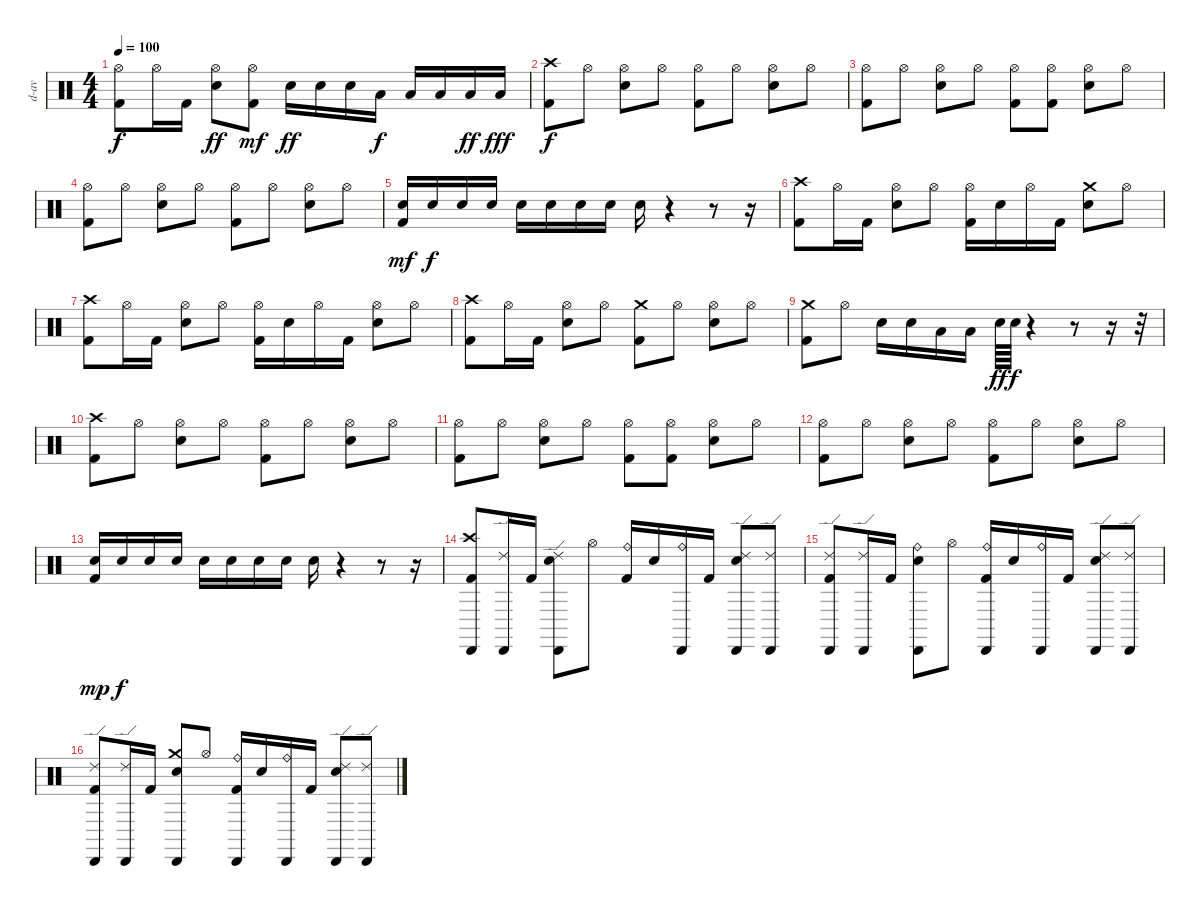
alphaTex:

\track ("d-av" "d-av") {instrument percussion}
\staff {score}
\articulation defaults
\ts (4 4)
\tempo 100
\clef neutral
\ks c
("Hi-Hat (open)" "Kick (hit) 2").8{dy f} "Hi-Hat (open)".16 "Kick (hit) 2".16 ("Hi-Hat (open)" "Electric Snare (hit)").8{dy ff} ("Hi-Hat (open)" "Kick (hit) 2").8{dy mf} "Electric Snare (hit)".16{dy ff} "Electric Snare (hit)".16 "Electric Snare (hit)".16 "Low Tom (hit)".16{dy f} "Low Tom (hit)".16 "Low Floor Tom (hit)".16 "Low Floor Tom (hit)".16{dy ff} "Low Floor Tom (hit)".16{dy fff} |
("Crash high (hit)" "Kick (hit) 2").8{dy f} "Hi-Hat (open)".8 ("Hi-Hat (open)" "Electric Snare (hit)").8 "Hi-Hat (open)".8 ("Hi-Hat (open)" "Kick (hit) 2").8 "Hi-Hat (open)".8 ("Hi-Hat (open)" "Electric Snare (hit)").8 "Hi-Hat (open)".8 |
("Hi-Hat (open)" "Kick (hit) 2").8 "Hi-Hat (open)".8 ("Hi-Hat (open)" "Electric Snare (hit)").8 "Hi-Hat (open)".8 ("Hi-Hat (open)" "Kick (hit) 2").8 ("Hi-Hat (open)" "Kick (hit) 2").8 ("Hi-Hat (open)" "Electric Snare (hit)").8 "Hi-Hat (open)".8 |
("Hi-Hat (open)" "Kick (hit) 2").8 "Hi-Hat (open)".8 ("Hi-Hat (open)" "Electric Snare (hit)").8 "Hi-Hat (open)".8 ("Hi-Hat (open)" "Kick (hit) 2").8 "Hi-Hat (open)".8 ("Hi-Hat (open)" "Electric Snare (hit)").8 "Hi-Hat (open)".8 |
("Electric Snare (hit)" "Kick (hit) 2").16{dy mf} "Electric Snare (hit)".16{dy f} "Electric Snare (hit)".16 "Electric Snare (hit)".16 "Electric Snare (hit)".16 "Electric Snare (hit)".16 "Electric Snare (hit)".16 "Electric Snare (hit)".16 "Electric Snare (hit)".16 r.4 r.8 r.16 |
("Crash high (hit)" "Kick (hit) 2").8 "Hi-Hat (open)".16 "Kick (hit) 2".16 ("Hi-Hat (open)" "Electric Snare (hit)").8 "Hi-Hat (open)".8 ("Hi-Hat (open)" "Kick (hit) 2").16 "Electric Snare (hit)".16 "Hi-Hat (open)".16 "Kick (hit) 2".16 ("Crash medium (hit)" "Electric Snare (hit)").8 "Hi-Hat (open)".8 |
("Crash high (hit)" "Kick (hit) 2").8 "Hi-Hat (open)".16 "Kick (hit) 2".16 ("Hi-Hat (open)" "Electric Snare (hit)").8 "Hi-Hat (open)".8 ("Hi-Hat (open)" "Kick (hit) 2").16 "Electric Snare (hit)".16 "Hi-Hat (open)".16 "Kick (hit) 2".16 ("Hi-Hat (open)" "Electric Snare (hit)").8 "Hi-Hat (open)".8 |
("Crash high (hit)" "Kick (hit) 2").8 "Hi-Hat (open)".16 "Kick (hit) 2".16 ("Hi-Hat (open)" "Electric Snare (hit)").8 "Hi-Hat (open)".8 ("Crash medium (hit)" "Kick (hit) 2").8 "Hi-Hat (open)".8 ("Hi-Hat (open)" "Electric Snare (hit)").8 "Hi-Hat (open)".8 |
("Crash medium (hit)" "Kick (hit) 2").8 "Hi-Hat (open)".8 "Electric Snare (hit)".16 "Electric Snare (hit)".16 "Low Tom (hit)".16 "Low Tom (hit)".16 "Electric Snare (hit)".64{dy ff} "Electric Snare (hit)".64{dy f} r.4 r.8 r.16 r.32 |
("Crash high (hit)" "Kick (hit) 2").8 "Hi-Hat (open)".8 ("Hi-Hat (open)" "Electric Snare (hit)").8 "Hi-Hat (open)".8 ("Hi-Hat (open)" "Kick (hit) 2").8 "Hi-Hat (open)".8 ("Hi-Hat (open)" "Electric Snare (hit)").8 "Hi-Hat (open)".8 |
("Hi-Hat (open)" "Kick (hit) 2").8 "Hi-Hat (open)".8 ("Hi-Hat (open)" "Electric Snare (hit)").8 "Hi-Hat (open)".8 ("Hi-Hat (open)" "Kick (hit) 2").8 ("Hi-Hat (open)" "Kick (hit) 2").8 ("Hi-Hat (open)" "Electric Snare (hit)").8 "Hi-Hat (open)".8 |
("Hi-Hat (open)" "Kick (hit) 2").8 "Hi-Hat (open)".8 ("Hi-Hat (open)" "Electric Snare (hit)").8 "Hi-Hat (open)".8 ("Hi-Hat (open)" "Kick (hit) 2").8 "Hi-Hat (open)".8 ("Hi-Hat (open)" "Electric Snare (hit)").8 "Hi-Hat (open)".8 |
("Electric Snare (hit)" "Kick (hit) 2").16{dy mp} "Electric Snare (hit)".16{dy f} "Electric Snare (hit)".16 "Electric Snare (hit)".16 "Electric Snare (hit)".16 "Electric Snare (hit)".16 "Electric Snare (hit)".16 "Electric Snare (hit)".16 "Electric Snare (hit)".16 r.4 r.8 r.16 |
("Crash high (hit)" "Kick (hit) 2" "Cabasa (hit)").8 ("Ride (edge) 2" "Cabasa (hit)").16 "Kick (hit) 2".16 ("Ride (edge) 2" "Electric Snare (hit)" "Cabasa (hit)").8 "Hi-Hat (open)".8 ("Ride (bell)" "Kick (hit) 2").16 "Electric Snare (hit)".16 ("Ride (bell)" "Cabasa (hit)").16 "Kick (hit) 2".16 ("Ride (edge) 2" "Electric Snare (hit)" "Cabasa (hit)").8 ("Ride (edge) 2" "Cabasa (hit)").8 |
("Ride (edge) 2" "Kick (hit) 2" "Cabasa (hit)").8 ("Ride (edge) 2" "Cabasa (hit)").16 "Kick (hit) 2".16 ("Ride (bell)" "Electric Snare (hit)" "Cabasa (hit)").8 "Hi-Hat (open)".8 ("Ride (bell)" "Kick (hit) 2" "Cabasa (hit)").16 "Electric Snare (hit)".16 ("Ride (bell)" "Cabasa (hit)").16 "Kick (hit) 2".16 ("Ride (edge) 2" "Electric Snare (hit)" "Cabasa (hit)").8 ("Ride (edge) 2" "Cabasa (hit)").8 |
("Ride (edge) 2" "Kick (hit) 2" "Cabasa (hit)").8 ("Ride (edge) 2" "Cabasa (hit)").16 "Kick (hit) 2".16 ("Crash medium (hit)" "Electric Snare (hit)" "Cabasa (hit)").8 "Hi-Hat (open)".8 ("Ride (bell)" "Kick (hit) 2" "Cabasa (hit)").16 "Electric Snare (hit)".16 ("Ride (bell)" "Cabasa (hit)").16 "Kick (hit) 2".16 ("Ride (edge) 2" "Electric Snare (hit)" "Cabasa (hit)").8 ("Ride (edge) 2" "Cabasa (hit)").8
